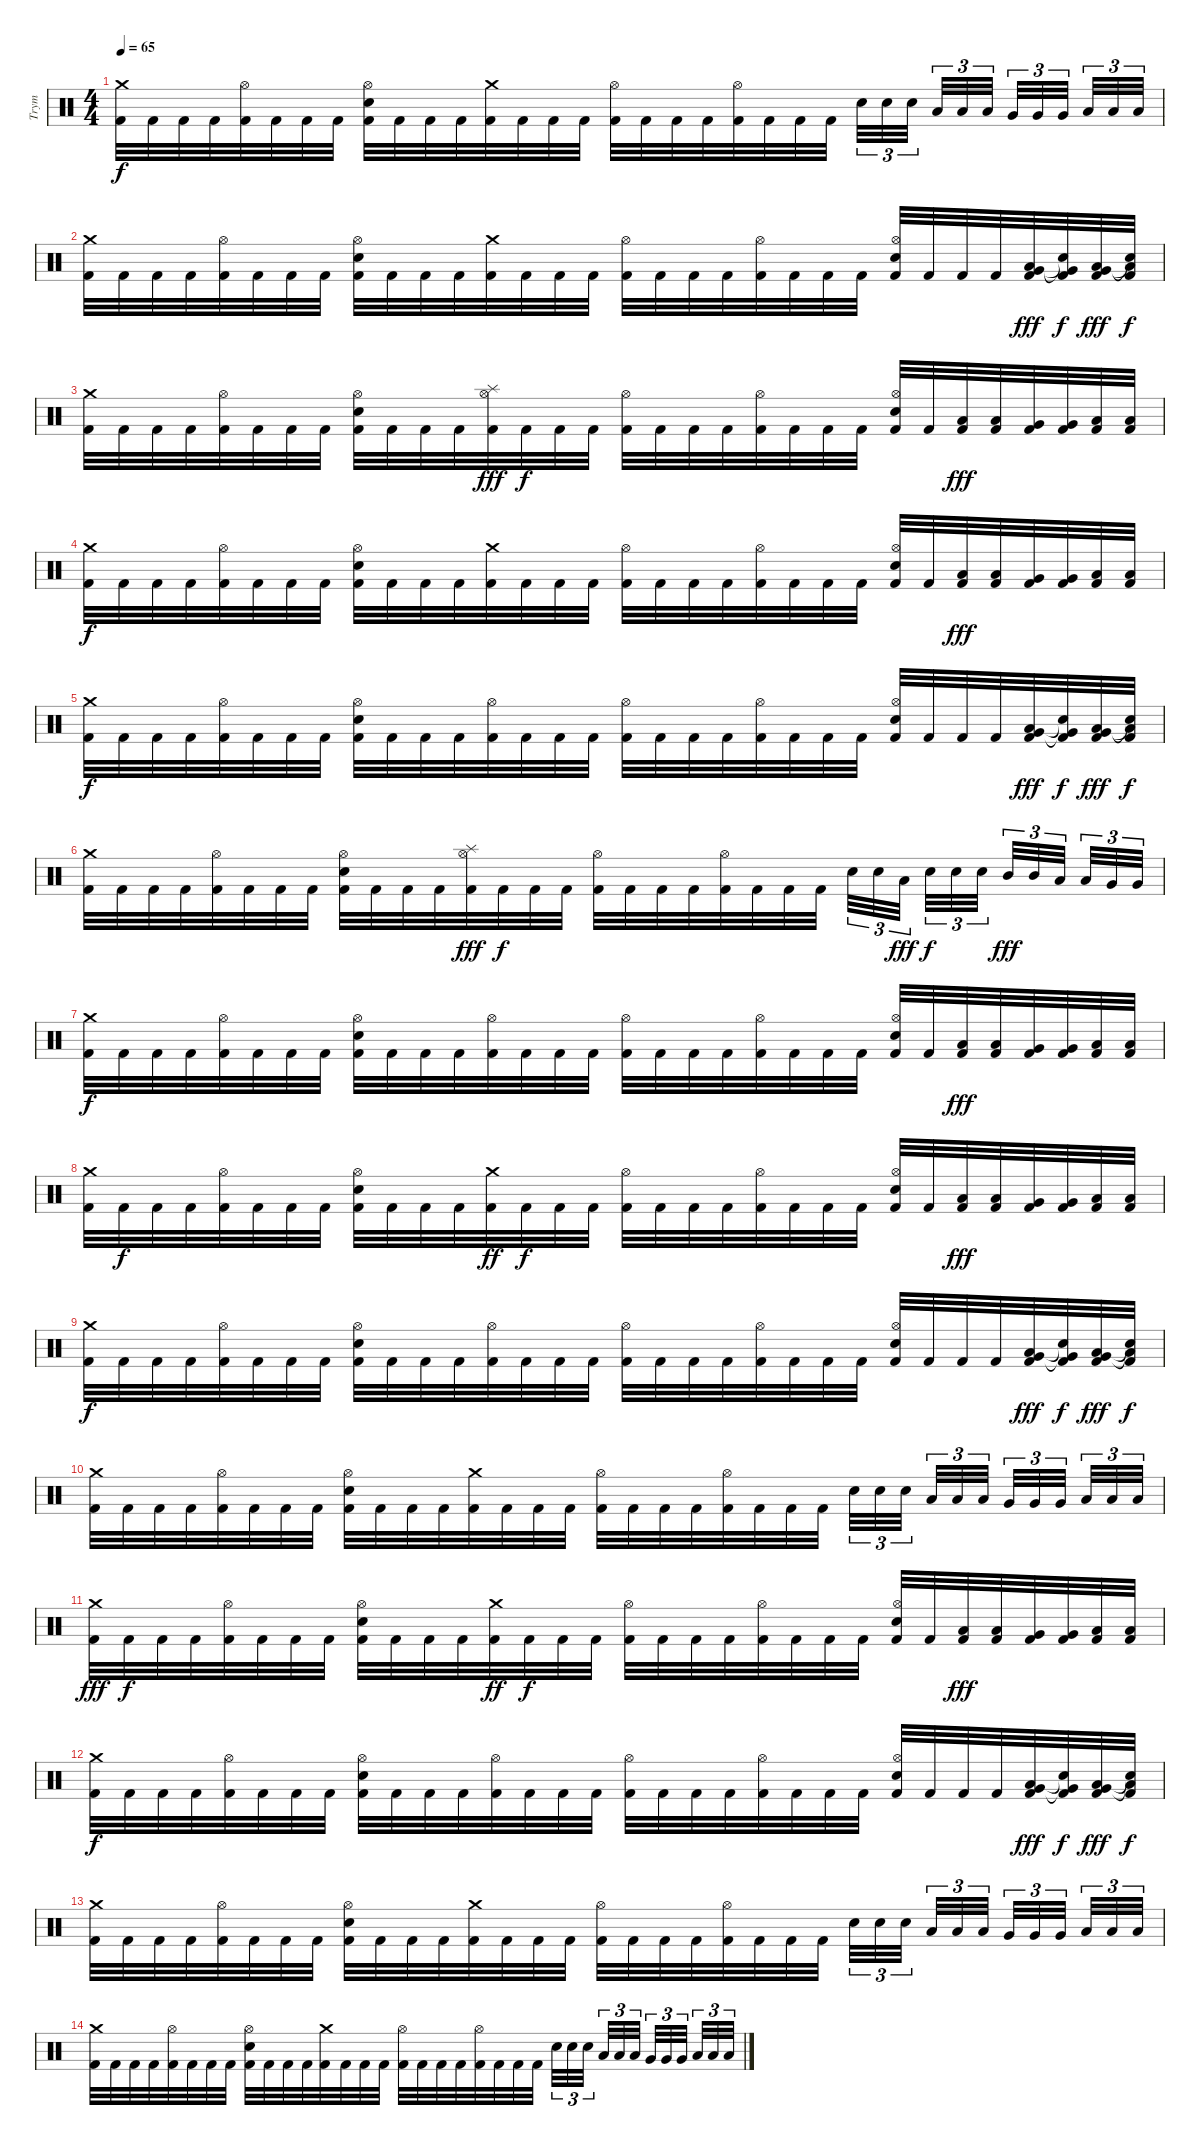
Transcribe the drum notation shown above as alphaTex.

\track ("Trym" "Trym") {instrument percussion}
\staff {score}
\articulation defaults
\ts (4 4)
\tempo 65
\clef neutral
\ks c
("Crash medium (hit)" "Kick (hit) 2").32{dy f} "Kick (hit) 2".32 "Kick (hit) 2".32 "Kick (hit) 2".32 ("Hi-Hat (open)" "Kick (hit) 2").32 "Kick (hit) 2".32 "Kick (hit) 2".32 "Kick (hit) 2".32 ("Hi-Hat (open)" "Electric Snare (hit)" "Kick (hit) 2").32 "Kick (hit) 2".32 "Kick (hit) 2".32 "Kick (hit) 2".32 ("Crash medium (hit)" "Kick (hit) 2").32 "Kick (hit) 2".32 "Kick (hit) 2".32 "Kick (hit) 2".32 ("Hi-Hat (open)" "Kick (hit) 2").32 "Kick (hit) 2".32 "Kick (hit) 2".32 "Kick (hit) 2".32 ("Hi-Hat (open)" "Kick (hit) 2").32 "Kick (hit) 2".32 "Kick (hit) 2".32 "Kick (hit) 2".32 "Electric Snare (hit)".32{tu (3 2)} "Electric Snare (hit)".32{tu (3 2)} "Electric Snare (hit)".32{tu (3 2)} "Low Tom (hit)".32{tu (3 2)} "Low Tom (hit)".32{tu (3 2)} "Low Tom (hit)".32{tu (3 2)} "Very Low Tom (hit)".32{tu (3 2)} "Very Low Tom (hit)".32{tu (3 2)} "Very Low Tom (hit)".32{tu (3 2)} "Low Floor Tom (hit)".32{tu (3 2)} "Low Floor Tom (hit)".32{tu (3 2)} "Low Floor Tom (hit)".32{tu (3 2)} |
("Crash medium (hit)" "Kick (hit) 2").32 "Kick (hit) 2".32 "Kick (hit) 2".32 "Kick (hit) 2".32 ("Hi-Hat (open)" "Kick (hit) 2").32 "Kick (hit) 2".32 "Kick (hit) 2".32 "Kick (hit) 2".32 ("Hi-Hat (open)" "Electric Snare (hit)" "Kick (hit) 2").32 "Kick (hit) 2".32 "Kick (hit) 2".32 "Kick (hit) 2".32 ("Crash medium (hit)" "Kick (hit) 2").32 "Kick (hit) 2".32 "Kick (hit) 2".32 "Kick (hit) 2".32 ("Hi-Hat (open)" "Kick (hit) 2").32 "Kick (hit) 2".32 "Kick (hit) 2".32 "Kick (hit) 2".32 ("Hi-Hat (open)" "Kick (hit) 2").32 "Kick (hit) 2".32 "Kick (hit) 2".32 "Kick (hit) 2".32 ("Hi-Hat (open)" "Electric Snare (hit)" "Kick (hit) 2").32 "Kick (hit) 2".32 "Kick (hit) 2".32 "Kick (hit) 2".32 ("Very Low Tom (hit)" "Low Tom (hit)" "Kick (hit) 2").32{dy fff} ("Snare (hit)"{t} "Very Low Tom (hit)"{t} "Kick (hit) 2").32{dy f} ("Very Low Tom (hit)" "Low Tom (hit)" "Kick (hit) 2").32{dy fff} ("Snare (hit)"{t} "Low Floor Tom (hit)"{t} "Kick (hit) 2").32{dy f} |
("Crash medium (hit)" "Kick (hit) 2").32 "Kick (hit) 2".32 "Kick (hit) 2".32 "Kick (hit) 2".32 ("Hi-Hat (open)" "Kick (hit) 2").32 "Kick (hit) 2".32 "Kick (hit) 2".32 "Kick (hit) 2".32 ("Hi-Hat (open)" "Electric Snare (hit)" "Kick (hit) 2").32 "Kick (hit) 2".32 "Kick (hit) 2".32 "Kick (hit) 2".32 ("Splash (hit)" "Hi-Hat (open)" "Kick (hit) 2").32{dy fff} "Kick (hit) 2".32{dy f} "Kick (hit) 2".32 "Kick (hit) 2".32 ("Hi-Hat (open)" "Kick (hit) 2").32 "Kick (hit) 2".32 "Kick (hit) 2".32 "Kick (hit) 2".32 ("Hi-Hat (open)" "Kick (hit) 2").32 "Kick (hit) 2".32 "Kick (hit) 2".32 "Kick (hit) 2".32 ("Hi-Hat (open)" "Electric Snare (hit)" "Kick (hit) 2").32 "Kick (hit) 2".32 ("Low Tom (hit)" "Kick (hit) 2").32{dy fff} ("Low Tom (hit)" "Kick (hit) 2").32 ("Very Low Tom (hit)" "Kick (hit) 2").32 ("Very Low Tom (hit)" "Kick (hit) 2").32 ("Low Floor Tom (hit)" "Kick (hit) 2").32 ("Low Floor Tom (hit)" "Kick (hit) 2").32 |
("Crash medium (hit)" "Kick (hit) 2").32{dy f} "Kick (hit) 2".32 "Kick (hit) 2".32 "Kick (hit) 2".32 ("Hi-Hat (open)" "Kick (hit) 2").32 "Kick (hit) 2".32 "Kick (hit) 2".32 "Kick (hit) 2".32 ("Hi-Hat (open)" "Electric Snare (hit)" "Kick (hit) 2").32 "Kick (hit) 2".32 "Kick (hit) 2".32 "Kick (hit) 2".32 ("Crash medium (hit)" "Kick (hit) 2").32 "Kick (hit) 2".32 "Kick (hit) 2".32 "Kick (hit) 2".32 ("Hi-Hat (open)" "Kick (hit) 2").32 "Kick (hit) 2".32 "Kick (hit) 2".32 "Kick (hit) 2".32 ("Hi-Hat (open)" "Kick (hit) 2").32 "Kick (hit) 2".32 "Kick (hit) 2".32 "Kick (hit) 2".32 ("Hi-Hat (open)" "Electric Snare (hit)" "Kick (hit) 2").32 "Kick (hit) 2".32 ("Low Tom (hit)" "Kick (hit) 2").32{dy fff} ("Low Tom (hit)" "Kick (hit) 2").32 ("Very Low Tom (hit)" "Kick (hit) 2").32 ("Very Low Tom (hit)" "Kick (hit) 2").32 ("Low Floor Tom (hit)" "Kick (hit) 2").32 ("Low Floor Tom (hit)" "Kick (hit) 2").32 |
("Crash medium (hit)" "Kick (hit) 2").32{dy f} "Kick (hit) 2".32 "Kick (hit) 2".32 "Kick (hit) 2".32 ("Hi-Hat (open)" "Kick (hit) 2").32 "Kick (hit) 2".32 "Kick (hit) 2".32 "Kick (hit) 2".32 ("Hi-Hat (open)" "Electric Snare (hit)" "Kick (hit) 2").32 "Kick (hit) 2".32 "Kick (hit) 2".32 "Kick (hit) 2".32 ("Hi-Hat (open)" "Kick (hit) 2").32 "Kick (hit) 2".32 "Kick (hit) 2".32 "Kick (hit) 2".32 ("Hi-Hat (open)" "Kick (hit) 2").32 "Kick (hit) 2".32 "Kick (hit) 2".32 "Kick (hit) 2".32 ("Hi-Hat (open)" "Kick (hit) 2").32 "Kick (hit) 2".32 "Kick (hit) 2".32 "Kick (hit) 2".32 ("Hi-Hat (open)" "Electric Snare (hit)" "Kick (hit) 2").32 "Kick (hit) 2".32 "Kick (hit) 2".32 "Kick (hit) 2".32 ("Low Tom (hit)" "Very Low Tom (hit)" "Kick (hit) 2").32{dy fff} ("Snare (hit)"{t} "Very Low Tom (hit)"{t} "Kick (hit) 2").32{dy f} ("Very Low Tom (hit)" "Low Tom (hit)" "Kick (hit) 2").32{dy fff} ("Snare (hit)"{t} "Low Floor Tom (hit)"{t} "Kick (hit) 2").32{dy f} |
("Crash medium (hit)" "Kick (hit) 2").32 "Kick (hit) 2".32 "Kick (hit) 2".32 "Kick (hit) 2".32 ("Hi-Hat (open)" "Kick (hit) 2").32 "Kick (hit) 2".32 "Kick (hit) 2".32 "Kick (hit) 2".32 ("Hi-Hat (open)" "Electric Snare (hit)" "Kick (hit) 2").32 "Kick (hit) 2".32 "Kick (hit) 2".32 "Kick (hit) 2".32 ("Splash (hit)" "Hi-Hat (open)" "Kick (hit) 2").32{dy fff} "Kick (hit) 2".32{dy f} "Kick (hit) 2".32 "Kick (hit) 2".32 ("Hi-Hat (open)" "Kick (hit) 2").32 "Kick (hit) 2".32 "Kick (hit) 2".32 "Kick (hit) 2".32 ("Hi-Hat (open)" "Kick (hit) 2").32 "Kick (hit) 2".32 "Kick (hit) 2".32 "Kick (hit) 2".32 "Electric Snare (hit)".32{tu (3 2)} "Electric Snare (hit)".32{tu (3 2)} "Low Tom (hit)".32{tu (3 2) dy fff} "Electric Snare (hit)".32{tu (3 2) dy f} "Electric Snare (hit)".32{tu (3 2)} "Electric Snare (hit)".32{tu (3 2)} "Mid Tom (hit)".32{tu (3 2) dy fff} "Mid Tom (hit)".32{tu (3 2)} "Low Tom (hit)".32{tu (3 2)} "Low Tom (hit)".32{tu (3 2)} "Very Low Tom (hit)".32{tu (3 2)} "Very Low Tom (hit)".32{tu (3 2)} |
("Crash medium (hit)" "Kick (hit) 2").32{dy f} "Kick (hit) 2".32 "Kick (hit) 2".32 "Kick (hit) 2".32 ("Hi-Hat (open)" "Kick (hit) 2").32 "Kick (hit) 2".32 "Kick (hit) 2".32 "Kick (hit) 2".32 ("Hi-Hat (open)" "Electric Snare (hit)" "Kick (hit) 2").32 "Kick (hit) 2".32 "Kick (hit) 2".32 "Kick (hit) 2".32 ("Hi-Hat (open)" "Kick (hit) 2").32 "Kick (hit) 2".32 "Kick (hit) 2".32 "Kick (hit) 2".32 ("Hi-Hat (open)" "Kick (hit) 2").32 "Kick (hit) 2".32 "Kick (hit) 2".32 "Kick (hit) 2".32 ("Hi-Hat (open)" "Kick (hit) 2").32 "Kick (hit) 2".32 "Kick (hit) 2".32 "Kick (hit) 2".32 ("Hi-Hat (open)" "Electric Snare (hit)" "Kick (hit) 2").32 "Kick (hit) 2".32 ("Low Tom (hit)" "Kick (hit) 2").32{dy fff} ("Low Tom (hit)" "Kick (hit) 2").32 ("Very Low Tom (hit)" "Kick (hit) 2").32 ("Very Low Tom (hit)" "Kick (hit) 2").32 ("Low Floor Tom (hit)" "Kick (hit) 2").32 ("Low Floor Tom (hit)" "Kick (hit) 2").32 |
("Crash medium (hit)" "Kick (hit) 2").32 "Kick (hit) 2".32{dy f} "Kick (hit) 2".32 "Kick (hit) 2".32 ("Hi-Hat (open)" "Kick (hit) 2").32 "Kick (hit) 2".32 "Kick (hit) 2".32 "Kick (hit) 2".32 ("Hi-Hat (open)" "Electric Snare (hit)" "Kick (hit) 2").32 "Kick (hit) 2".32 "Kick (hit) 2".32 "Kick (hit) 2".32 ("Crash medium (hit)" "Kick (hit) 2").32{dy ff} "Kick (hit) 2".32{dy f} "Kick (hit) 2".32 "Kick (hit) 2".32 ("Hi-Hat (open)" "Kick (hit) 2").32 "Kick (hit) 2".32 "Kick (hit) 2".32 "Kick (hit) 2".32 ("Hi-Hat (open)" "Kick (hit) 2").32 "Kick (hit) 2".32 "Kick (hit) 2".32 "Kick (hit) 2".32 ("Hi-Hat (open)" "Electric Snare (hit)" "Kick (hit) 2").32 "Kick (hit) 2".32 ("Low Tom (hit)" "Kick (hit) 2").32{dy fff} ("Low Tom (hit)" "Kick (hit) 2").32 ("Very Low Tom (hit)" "Kick (hit) 2").32 ("Very Low Tom (hit)" "Kick (hit) 2").32 ("Low Floor Tom (hit)" "Kick (hit) 2").32 ("Low Floor Tom (hit)" "Kick (hit) 2").32 |
("Crash medium (hit)" "Kick (hit) 2").32{dy f} "Kick (hit) 2".32 "Kick (hit) 2".32 "Kick (hit) 2".32 ("Hi-Hat (open)" "Kick (hit) 2").32 "Kick (hit) 2".32 "Kick (hit) 2".32 "Kick (hit) 2".32 ("Hi-Hat (open)" "Electric Snare (hit)" "Kick (hit) 2").32 "Kick (hit) 2".32 "Kick (hit) 2".32 "Kick (hit) 2".32 ("Hi-Hat (open)" "Kick (hit) 2").32 "Kick (hit) 2".32 "Kick (hit) 2".32 "Kick (hit) 2".32 ("Hi-Hat (open)" "Kick (hit) 2").32 "Kick (hit) 2".32 "Kick (hit) 2".32 "Kick (hit) 2".32 ("Hi-Hat (open)" "Kick (hit) 2").32 "Kick (hit) 2".32 "Kick (hit) 2".32 "Kick (hit) 2".32 ("Hi-Hat (open)" "Electric Snare (hit)" "Kick (hit) 2").32 "Kick (hit) 2".32 "Kick (hit) 2".32 "Kick (hit) 2".32 ("Low Tom (hit)" "Very Low Tom (hit)" "Kick (hit) 2").32{dy fff} ("Snare (hit)"{t} "Very Low Tom (hit)"{t} "Kick (hit) 2").32{dy f} ("Low Tom (hit)" "Very Low Tom (hit)" "Kick (hit) 2").32{dy fff} ("Snare (hit)"{t} "Low Floor Tom (hit)"{t} "Kick (hit) 2").32{dy f} |
("Crash medium (hit)" "Kick (hit) 2").32 "Kick (hit) 2".32 "Kick (hit) 2".32 "Kick (hit) 2".32 ("Hi-Hat (open)" "Kick (hit) 2").32 "Kick (hit) 2".32 "Kick (hit) 2".32 "Kick (hit) 2".32 ("Hi-Hat (open)" "Electric Snare (hit)" "Kick (hit) 2").32 "Kick (hit) 2".32 "Kick (hit) 2".32 "Kick (hit) 2".32 ("Crash medium (hit)" "Kick (hit) 2").32 "Kick (hit) 2".32 "Kick (hit) 2".32 "Kick (hit) 2".32 ("Hi-Hat (open)" "Kick (hit) 2").32 "Kick (hit) 2".32 "Kick (hit) 2".32 "Kick (hit) 2".32 ("Hi-Hat (open)" "Kick (hit) 2").32 "Kick (hit) 2".32 "Kick (hit) 2".32 "Kick (hit) 2".32 "Electric Snare (hit)".32{tu (3 2)} "Electric Snare (hit)".32{tu (3 2)} "Electric Snare (hit)".32{tu (3 2)} "Low Tom (hit)".32{tu (3 2)} "Low Tom (hit)".32{tu (3 2)} "Low Tom (hit)".32{tu (3 2)} "Very Low Tom (hit)".32{tu (3 2)} "Very Low Tom (hit)".32{tu (3 2)} "Very Low Tom (hit)".32{tu (3 2)} "Low Floor Tom (hit)".32{tu (3 2)} "Low Floor Tom (hit)".32{tu (3 2)} "Low Floor Tom (hit)".32{tu (3 2)} |
("Crash medium (hit)" "Kick (hit) 2").32{dy fff} "Kick (hit) 2".32{dy f} "Kick (hit) 2".32 "Kick (hit) 2".32 ("Hi-Hat (open)" "Kick (hit) 2").32 "Kick (hit) 2".32 "Kick (hit) 2".32 "Kick (hit) 2".32 ("Hi-Hat (open)" "Electric Snare (hit)" "Kick (hit) 2").32 "Kick (hit) 2".32 "Kick (hit) 2".32 "Kick (hit) 2".32 ("Crash medium (hit)" "Kick (hit) 2").32{dy ff} "Kick (hit) 2".32{dy f} "Kick (hit) 2".32 "Kick (hit) 2".32 ("Hi-Hat (open)" "Kick (hit) 2").32 "Kick (hit) 2".32 "Kick (hit) 2".32 "Kick (hit) 2".32 ("Hi-Hat (open)" "Kick (hit) 2").32 "Kick (hit) 2".32 "Kick (hit) 2".32 "Kick (hit) 2".32 ("Hi-Hat (open)" "Electric Snare (hit)" "Kick (hit) 2").32 "Kick (hit) 2".32 ("Low Tom (hit)" "Kick (hit) 2").32{dy fff} ("Low Tom (hit)" "Kick (hit) 2").32 ("Very Low Tom (hit)" "Kick (hit) 2").32 ("Very Low Tom (hit)" "Kick (hit) 2").32 ("Low Floor Tom (hit)" "Kick (hit) 2").32 ("Low Floor Tom (hit)" "Kick (hit) 2").32 |
("Crash medium (hit)" "Kick (hit) 2").32{dy f} "Kick (hit) 2".32 "Kick (hit) 2".32 "Kick (hit) 2".32 ("Hi-Hat (open)" "Kick (hit) 2").32 "Kick (hit) 2".32 "Kick (hit) 2".32 "Kick (hit) 2".32 ("Hi-Hat (open)" "Electric Snare (hit)" "Kick (hit) 2").32 "Kick (hit) 2".32 "Kick (hit) 2".32 "Kick (hit) 2".32 ("Hi-Hat (open)" "Kick (hit) 2").32 "Kick (hit) 2".32 "Kick (hit) 2".32 "Kick (hit) 2".32 ("Hi-Hat (open)" "Kick (hit) 2").32 "Kick (hit) 2".32 "Kick (hit) 2".32 "Kick (hit) 2".32 ("Hi-Hat (open)" "Kick (hit) 2").32 "Kick (hit) 2".32 "Kick (hit) 2".32 "Kick (hit) 2".32 ("Hi-Hat (open)" "Electric Snare (hit)" "Kick (hit) 2").32 "Kick (hit) 2".32 "Kick (hit) 2".32 "Kick (hit) 2".32 ("Low Tom (hit)" "Very Low Tom (hit)" "Kick (hit) 2").32{dy fff} ("Snare (hit)"{t} "Very Low Tom (hit)"{t} "Kick (hit) 2").32{dy f} ("Low Tom (hit)" "Very Low Tom (hit)" "Kick (hit) 2").32{dy fff} ("Snare (hit)"{t} "Low Floor Tom (hit)"{t} "Kick (hit) 2").32{dy f} |
("Crash medium (hit)" "Kick (hit) 2").32 "Kick (hit) 2".32 "Kick (hit) 2".32 "Kick (hit) 2".32 ("Hi-Hat (open)" "Kick (hit) 2").32 "Kick (hit) 2".32 "Kick (hit) 2".32 "Kick (hit) 2".32 ("Hi-Hat (open)" "Electric Snare (hit)" "Kick (hit) 2").32 "Kick (hit) 2".32 "Kick (hit) 2".32 "Kick (hit) 2".32 ("Crash medium (hit)" "Kick (hit) 2").32 "Kick (hit) 2".32 "Kick (hit) 2".32 "Kick (hit) 2".32 ("Hi-Hat (open)" "Kick (hit) 2").32 "Kick (hit) 2".32 "Kick (hit) 2".32 "Kick (hit) 2".32 ("Hi-Hat (open)" "Kick (hit) 2").32 "Kick (hit) 2".32 "Kick (hit) 2".32 "Kick (hit) 2".32 "Electric Snare (hit)".32{tu (3 2)} "Electric Snare (hit)".32{tu (3 2)} "Electric Snare (hit)".32{tu (3 2)} "Low Tom (hit)".32{tu (3 2)} "Low Tom (hit)".32{tu (3 2)} "Low Tom (hit)".32{tu (3 2)} "Very Low Tom (hit)".32{tu (3 2)} "Very Low Tom (hit)".32{tu (3 2)} "Very Low Tom (hit)".32{tu (3 2)} "Low Floor Tom (hit)".32{tu (3 2)} "Low Floor Tom (hit)".32{tu (3 2)} "Low Floor Tom (hit)".32{tu (3 2)} |
("Crash medium (hit)" "Kick (hit) 2").32 "Kick (hit) 2".32 "Kick (hit) 2".32 "Kick (hit) 2".32 ("Hi-Hat (open)" "Kick (hit) 2").32 "Kick (hit) 2".32 "Kick (hit) 2".32 "Kick (hit) 2".32 ("Hi-Hat (open)" "Electric Snare (hit)" "Kick (hit) 2").32 "Kick (hit) 2".32 "Kick (hit) 2".32 "Kick (hit) 2".32 ("Crash medium (hit)" "Kick (hit) 2").32 "Kick (hit) 2".32 "Kick (hit) 2".32 "Kick (hit) 2".32 ("Hi-Hat (open)" "Kick (hit) 2").32 "Kick (hit) 2".32 "Kick (hit) 2".32 "Kick (hit) 2".32 ("Hi-Hat (open)" "Kick (hit) 2").32 "Kick (hit) 2".32 "Kick (hit) 2".32 "Kick (hit) 2".32 "Electric Snare (hit)".32{tu (3 2)} "Electric Snare (hit)".32{tu (3 2)} "Electric Snare (hit)".32{tu (3 2)} "Low Tom (hit)".32{tu (3 2)} "Low Tom (hit)".32{tu (3 2)} "Low Tom (hit)".32{tu (3 2)} "Very Low Tom (hit)".32{tu (3 2)} "Very Low Tom (hit)".32{tu (3 2)} "Very Low Tom (hit)".32{tu (3 2)} "Low Floor Tom (hit)".32{tu (3 2)} "Low Floor Tom (hit)".32{tu (3 2)} "Low Floor Tom (hit)".32{tu (3 2)}
